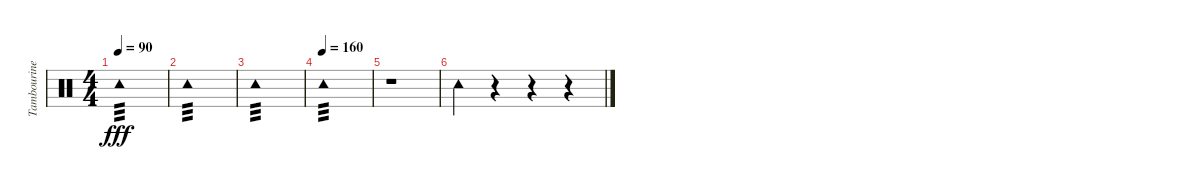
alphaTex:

\track ("Tambourine" "Tambourine") {instrument percussion}
\staff {score}
\articulation defaults
\ts (4 4)
\tempo 90
\clef neutral
\ks c "Tambourine (hit)".1{tp 3 dy fff}
|
"Tambourine (hit)".1{tp 3} |
"Tambourine (hit)".1{tp 3} |
\tempo (160)
"Tambourine (hit)".1{tp 3} |
r.1 |
"Tambourine (hit)".4 r.4 r.4 r.4
